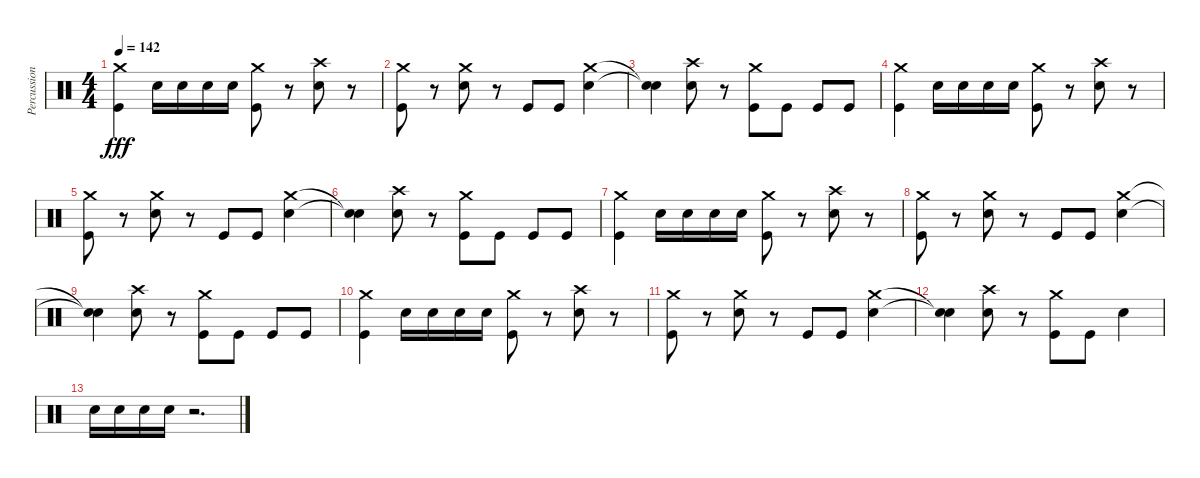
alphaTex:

\track ("Percussions" "Percussion") {instrument percussion}
\staff {score}
\articulation defaults
\ts (4 4)
\tempo 142
\clef neutral
\ks c
("Crash medium (hit)" "Kick (hit)").4{dy fff} "Snare (hit) 2".16 "Snare (hit) 2".16 "Snare (hit) 2".16 "Snare (hit) 2".16 ("Crash medium (hit)" "Kick (hit)").8 r.8 ("Crash high (hit)" "Snare (hit) 2").8 r.8 |
("Crash medium (hit)" "Kick (hit)").8 r.8 ("Crash medium (hit)" "Snare (hit) 2").8 r.8 "Kick (hit)".8 "Kick (hit)".8 ("Crash medium (hit)" "Snare (hit) 2").4 |
("Snare (hit)"{t} "Snare (hit)"{t}).4 ("Crash high (hit)" "Snare (hit) 2").8 r.8 ("Crash medium (hit)" "Kick (hit)").8 "Kick (hit)".8 "Kick (hit)".8 "Kick (hit)".8 |
("Crash medium (hit)" "Kick (hit)").4 "Snare (hit) 2".16 "Snare (hit) 2".16 "Snare (hit) 2".16 "Snare (hit) 2".16 ("Crash medium (hit)" "Kick (hit)").8 r.8 ("Crash high (hit)" "Snare (hit) 2").8 r.8 |
("Crash medium (hit)" "Kick (hit)").8 r.8 ("Crash medium (hit)" "Snare (hit) 2").8 r.8 "Kick (hit)".8 "Kick (hit)".8 ("Crash medium (hit)" "Snare (hit) 2").4 |
("Snare (hit)"{t} "Snare (hit)"{t}).4 ("Crash high (hit)" "Snare (hit) 2").8 r.8 ("Crash medium (hit)" "Kick (hit)").8 "Kick (hit)".8 "Kick (hit)".8 "Kick (hit)".8 |
("Crash medium (hit)" "Kick (hit)").4 "Snare (hit) 2".16 "Snare (hit) 2".16 "Snare (hit) 2".16 "Snare (hit) 2".16 ("Crash medium (hit)" "Kick (hit)").8 r.8 ("Crash high (hit)" "Snare (hit) 2").8 r.8 |
("Crash medium (hit)" "Kick (hit)").8 r.8 ("Crash medium (hit)" "Snare (hit) 2").8 r.8 "Kick (hit)".8 "Kick (hit)".8 ("Crash medium (hit)" "Snare (hit) 2").4 |
("Snare (hit)"{t} "Snare (hit)"{t}).4 ("Crash high (hit)" "Snare (hit) 2").8 r.8 ("Crash medium (hit)" "Kick (hit)").8 "Kick (hit)".8 "Kick (hit)".8 "Kick (hit)".8 |
("Crash medium (hit)" "Kick (hit)").4 "Snare (hit) 2".16 "Snare (hit) 2".16 "Snare (hit) 2".16 "Snare (hit) 2".16 ("Crash medium (hit)" "Kick (hit)").8 r.8 ("Crash high (hit)" "Snare (hit) 2").8 r.8 |
("Crash medium (hit)" "Kick (hit)").8 r.8 ("Crash medium (hit)" "Snare (hit) 2").8 r.8 "Kick (hit)".8 "Kick (hit)".8 ("Crash medium (hit)" "Snare (hit) 2").4 |
("Snare (hit)"{t} "Snare (hit)"{t}).4 ("Crash high (hit)" "Snare (hit) 2").8 r.8 ("Crash medium (hit)" "Kick (hit)").8 "Kick (hit)".8 "Snare (hit) 2".4 |
"Snare (hit) 2".16 "Snare (hit) 2".16 "Snare (hit) 2".16 "Snare (hit) 2".16 r.2{d}
